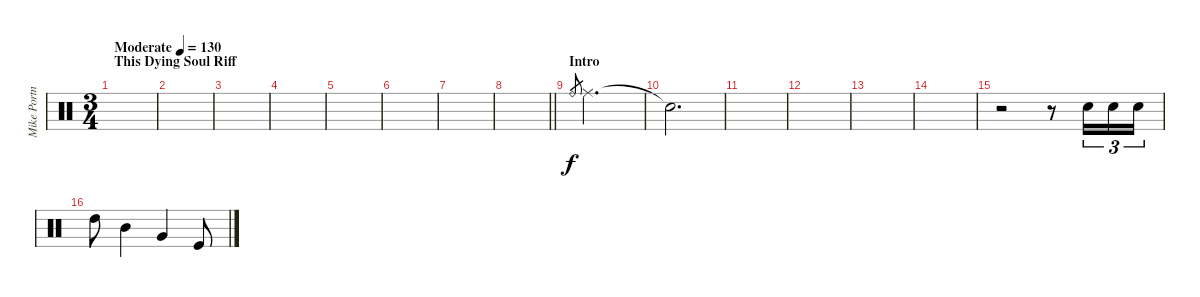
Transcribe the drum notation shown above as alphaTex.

\track ("Mike Portnoy" "Mike Portn") {instrument percussion}
\staff {score}
\articulation defaults
\ts (3 4)
\section ("" "This Dying Soul Riff")
\tempo (130 "Moderate")
\clef neutral
\ks c
|
|
|
|
|
|
|
\barLineRight lightlight
|
\section ("" "Intro")
"Ride (bell)".8{gr} "Ride (middle)".2{d dy f} |
"Snare (hit)"{t}.2{d} |
|
|
|
|
r.2 r.8 "Electric Snare (hit)".16{tu (3 2)} "Electric Snare (hit)".16{tu (3 2)} "Electric Snare (hit)".16{tu (3 2)} |
"High Tom (hit)".8 "Mid Tom (hit)".4 "Very Low Tom (hit)".4 "Kick (hit)".8
